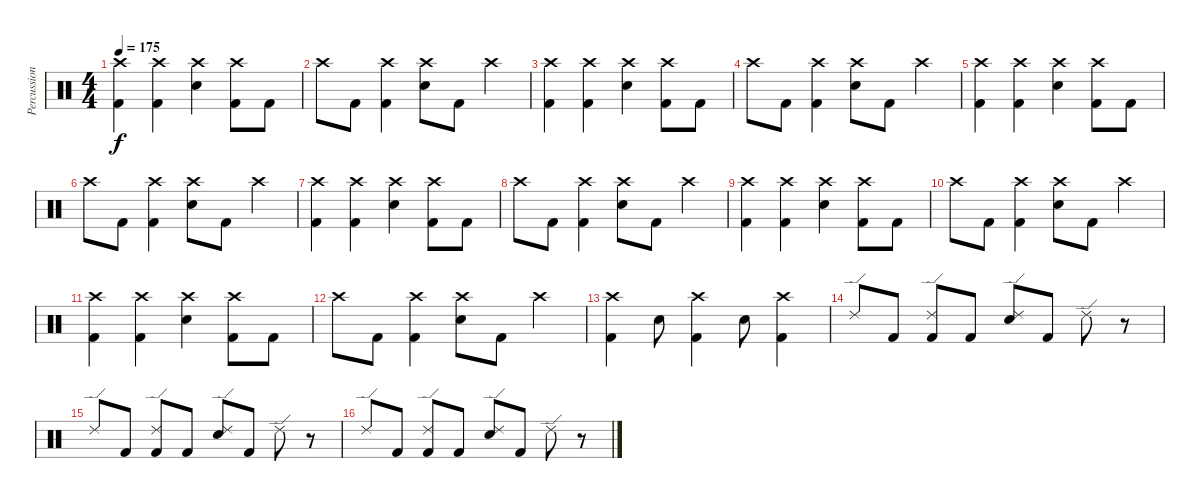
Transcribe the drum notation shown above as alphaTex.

\track ("Percussion" "Percussion") {instrument percussion}
\staff {score}
\articulation defaults
\ts (4 4)
\tempo 175
\clef neutral
\ks c
("Crash high (hit)" "Kick (hit) 2").4{dy f} ("Crash high (hit)" "Kick (hit) 2").4 ("Crash high (hit)" "Snare (hit) 2").4 ("Crash high (hit)" "Kick (hit) 2").8 "Kick (hit) 2".8 |
"Crash high (hit)".8 "Kick (hit) 2".8 ("Crash high (hit)" "Kick (hit) 2").4 ("Crash high (hit)" "Snare (hit) 2").8 "Kick (hit) 2".8 "Crash high (hit)".4 |
("Crash high (hit)" "Kick (hit) 2").4 ("Crash high (hit)" "Kick (hit) 2").4 ("Crash high (hit)" "Snare (hit) 2").4 ("Crash high (hit)" "Kick (hit) 2").8 "Kick (hit) 2".8 |
"Crash high (hit)".8 "Kick (hit) 2".8 ("Crash high (hit)" "Kick (hit) 2").4 ("Crash high (hit)" "Snare (hit) 2").8 "Kick (hit) 2".8 "Crash high (hit)".4 |
("Crash high (hit)" "Kick (hit) 2").4 ("Crash high (hit)" "Kick (hit) 2").4 ("Crash high (hit)" "Snare (hit) 2").4 ("Crash high (hit)" "Kick (hit) 2").8 "Kick (hit) 2".8 |
"Crash high (hit)".8 "Kick (hit) 2".8 ("Crash high (hit)" "Kick (hit) 2").4 ("Crash high (hit)" "Snare (hit) 2").8 "Kick (hit) 2".8 "Crash high (hit)".4 |
("Crash high (hit)" "Kick (hit) 2").4 ("Crash high (hit)" "Kick (hit) 2").4 ("Crash high (hit)" "Snare (hit) 2").4 ("Crash high (hit)" "Kick (hit) 2").8 "Kick (hit) 2".8 |
"Crash high (hit)".8 "Kick (hit) 2".8 ("Crash high (hit)" "Kick (hit) 2").4 ("Crash high (hit)" "Snare (hit) 2").8 "Kick (hit) 2".8 "Crash high (hit)".4 |
("Crash high (hit)" "Kick (hit) 2").4 ("Crash high (hit)" "Kick (hit) 2").4 ("Crash high (hit)" "Snare (hit) 2").4 ("Crash high (hit)" "Kick (hit) 2").8 "Kick (hit) 2".8 |
"Crash high (hit)".8 "Kick (hit) 2".8 ("Crash high (hit)" "Kick (hit) 2").4 ("Crash high (hit)" "Snare (hit) 2").8 "Kick (hit) 2".8 "Crash high (hit)".4 |
("Crash high (hit)" "Kick (hit) 2").4 ("Crash high (hit)" "Kick (hit) 2").4 ("Crash high (hit)" "Snare (hit) 2").4 ("Crash high (hit)" "Kick (hit) 2").8 "Kick (hit) 2".8 |
"Crash high (hit)".8 "Kick (hit) 2".8 ("Crash high (hit)" "Kick (hit) 2").4 ("Crash high (hit)" "Snare (hit) 2").8 "Kick (hit) 2".8 "Crash high (hit)".4 |
("Crash high (hit)" "Kick (hit) 2").4 "Snare (hit) 2".8 ("Crash high (hit)" "Kick (hit) 2").4 "Snare (hit) 2".8 ("Crash high (hit)" "Kick (hit) 2").4 |
"Ride (edge) 2".8 "Kick (hit) 2".8 ("Ride (edge) 2" "Kick (hit) 2").8 "Kick (hit) 2".8 ("Ride (edge) 2" "Snare (hit) 2").8 "Kick (hit) 2".8 "Ride (edge) 2".8 r.8 |
"Ride (edge) 2".8 "Kick (hit) 2".8 ("Ride (edge) 2" "Kick (hit) 2").8 "Kick (hit) 2".8 ("Ride (edge) 2" "Snare (hit) 2").8 "Kick (hit) 2".8 "Ride (edge) 2".8 r.8 |
"Ride (edge) 2".8 "Kick (hit) 2".8 ("Ride (edge) 2" "Kick (hit) 2").8 "Kick (hit) 2".8 ("Ride (edge) 2" "Snare (hit) 2").8 "Kick (hit) 2".8 "Ride (edge) 2".8 r.8
